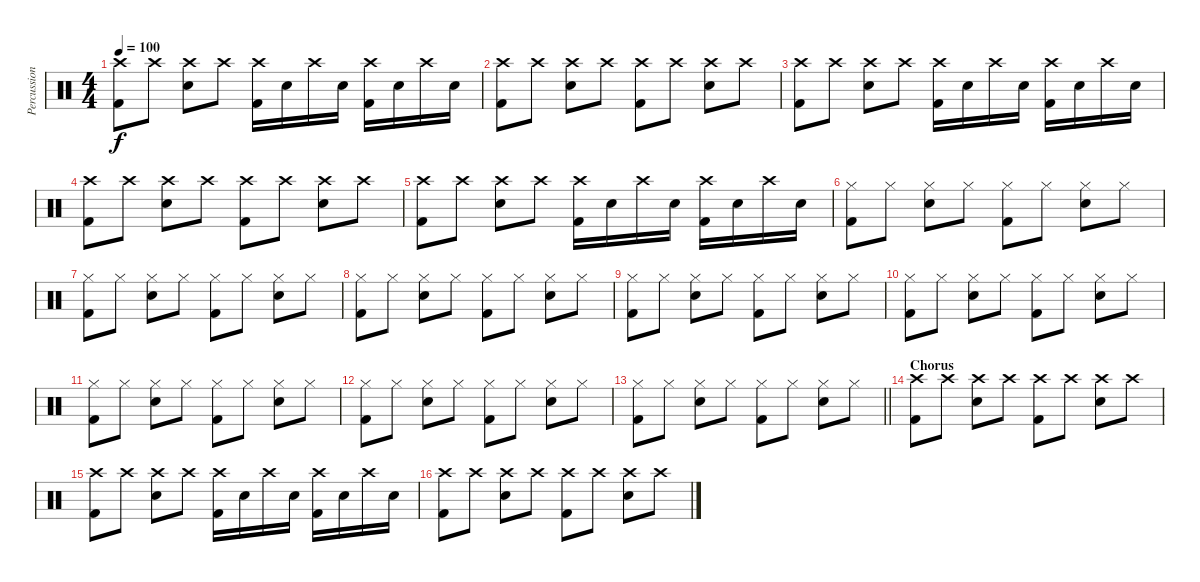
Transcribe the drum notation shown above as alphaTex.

\track ("Percussion" "Percussion") {instrument percussion}
\staff {score}
\articulation defaults
\ts (4 4)
\tempo 100
\clef neutral
\ks c
("Crash high (hit)" "Kick (hit) 2").8{dy f} "Crash high (hit)".8 ("Crash high (hit)" "Electric Snare (hit)").8 "Crash high (hit)".8 ("Crash high (hit)" "Kick (hit) 2").16 "Electric Snare (hit)".16 "Crash high (hit)".16 "Electric Snare (hit)".16 ("Crash high (hit)" "Kick (hit) 2").16 "Electric Snare (hit)".16 "Crash high (hit)".16 "Electric Snare (hit)".16 |
("Crash high (hit)" "Kick (hit) 2").8 "Crash high (hit)".8 ("Crash high (hit)" "Electric Snare (hit)").8 "Crash high (hit)".8 ("Crash high (hit)" "Kick (hit) 2").8 "Crash high (hit)".8 ("Crash high (hit)" "Electric Snare (hit)").8 "Crash high (hit)".8 |
("Crash high (hit)" "Kick (hit) 2").8 "Crash high (hit)".8 ("Crash high (hit)" "Electric Snare (hit)").8 "Crash high (hit)".8 ("Crash high (hit)" "Kick (hit) 2").16 "Electric Snare (hit)".16 "Crash high (hit)".16 "Electric Snare (hit)".16 ("Crash high (hit)" "Kick (hit) 2").16 "Electric Snare (hit)".16 "Crash high (hit)".16 "Electric Snare (hit)".16 |
("Crash high (hit)" "Kick (hit) 2").8 "Crash high (hit)".8 ("Crash high (hit)" "Electric Snare (hit)").8 "Crash high (hit)".8 ("Crash high (hit)" "Kick (hit) 2").8 "Crash high (hit)".8 ("Crash high (hit)" "Electric Snare (hit)").8 "Crash high (hit)".8 |
("Crash high (hit)" "Kick (hit) 2").8 "Crash high (hit)".8 ("Crash high (hit)" "Electric Snare (hit)").8 "Crash high (hit)".8 ("Crash high (hit)" "Kick (hit) 2").16 "Electric Snare (hit)".16 "Crash high (hit)".16 "Electric Snare (hit)".16 ("Crash high (hit)" "Kick (hit) 2").16 "Electric Snare (hit)".16 "Crash high (hit)".16 "Electric Snare (hit)".16 |
("Hi-Hat (closed)" "Kick (hit) 2").8 "Hi-Hat (closed)".8 ("Hi-Hat (closed)" "Electric Snare (hit)").8 "Hi-Hat (closed)".8 ("Hi-Hat (closed)" "Kick (hit) 2").8 "Hi-Hat (closed)".8 ("Hi-Hat (closed)" "Electric Snare (hit)").8 "Hi-Hat (closed)".8 |
("Hi-Hat (closed)" "Kick (hit) 2").8 "Hi-Hat (closed)".8 ("Hi-Hat (closed)" "Electric Snare (hit)").8 "Hi-Hat (closed)".8 ("Hi-Hat (closed)" "Kick (hit) 2").8 "Hi-Hat (closed)".8 ("Hi-Hat (closed)" "Electric Snare (hit)").8 "Hi-Hat (closed)".8 |
("Hi-Hat (closed)" "Kick (hit) 2").8 "Hi-Hat (closed)".8 ("Hi-Hat (closed)" "Electric Snare (hit)").8 "Hi-Hat (closed)".8 ("Hi-Hat (closed)" "Kick (hit) 2").8 "Hi-Hat (closed)".8 ("Hi-Hat (closed)" "Electric Snare (hit)").8 "Hi-Hat (closed)".8 |
("Hi-Hat (closed)" "Kick (hit) 2").8 "Hi-Hat (closed)".8 ("Hi-Hat (closed)" "Electric Snare (hit)").8 "Hi-Hat (closed)".8 ("Hi-Hat (closed)" "Kick (hit) 2").8 "Hi-Hat (closed)".8 ("Hi-Hat (closed)" "Electric Snare (hit)").8 "Hi-Hat (closed)".8 |
("Hi-Hat (closed)" "Kick (hit) 2").8 "Hi-Hat (closed)".8 ("Hi-Hat (closed)" "Electric Snare (hit)").8 "Hi-Hat (closed)".8 ("Hi-Hat (closed)" "Kick (hit) 2").8 "Hi-Hat (closed)".8 ("Hi-Hat (closed)" "Electric Snare (hit)").8 "Hi-Hat (closed)".8 |
("Hi-Hat (closed)" "Kick (hit) 2").8 "Hi-Hat (closed)".8 ("Hi-Hat (closed)" "Electric Snare (hit)").8 "Hi-Hat (closed)".8 ("Hi-Hat (closed)" "Kick (hit) 2").8 "Hi-Hat (closed)".8 ("Hi-Hat (closed)" "Electric Snare (hit)").8 "Hi-Hat (closed)".8 |
("Hi-Hat (closed)" "Kick (hit) 2").8 "Hi-Hat (closed)".8 ("Hi-Hat (closed)" "Electric Snare (hit)").8 "Hi-Hat (closed)".8 ("Hi-Hat (closed)" "Kick (hit) 2").8 "Hi-Hat (closed)".8 ("Hi-Hat (closed)" "Electric Snare (hit)").8 "Hi-Hat (closed)".8 |
\barLineRight lightlight
("Hi-Hat (closed)" "Kick (hit) 2").8 "Hi-Hat (closed)".8 ("Hi-Hat (closed)" "Electric Snare (hit)").8 "Hi-Hat (closed)".8 ("Hi-Hat (closed)" "Kick (hit) 2").8 "Hi-Hat (closed)".8 ("Hi-Hat (closed)" "Electric Snare (hit)").8 "Hi-Hat (closed)".8 |
\section ("" "Chorus")
("Crash high (hit)" "Kick (hit) 2").8 "Crash high (hit)".8 ("Crash high (hit)" "Electric Snare (hit)").8 "Crash high (hit)".8 ("Crash high (hit)" "Kick (hit) 2").8 "Crash high (hit)".8 ("Crash high (hit)" "Electric Snare (hit)").8 "Crash high (hit)".8 |
("Crash high (hit)" "Kick (hit) 2").8 "Crash high (hit)".8 ("Crash high (hit)" "Electric Snare (hit)").8 "Crash high (hit)".8 ("Crash high (hit)" "Kick (hit) 2").16 "Electric Snare (hit)".16 "Crash high (hit)".16 "Electric Snare (hit)".16 ("Crash high (hit)" "Kick (hit) 2").16 "Electric Snare (hit)".16 "Crash high (hit)".16 "Electric Snare (hit)".16 |
("Crash high (hit)" "Kick (hit) 2").8 "Crash high (hit)".8 ("Crash high (hit)" "Electric Snare (hit)").8 "Crash high (hit)".8 ("Crash high (hit)" "Kick (hit) 2").8 "Crash high (hit)".8 ("Crash high (hit)" "Electric Snare (hit)").8 "Crash high (hit)".8
